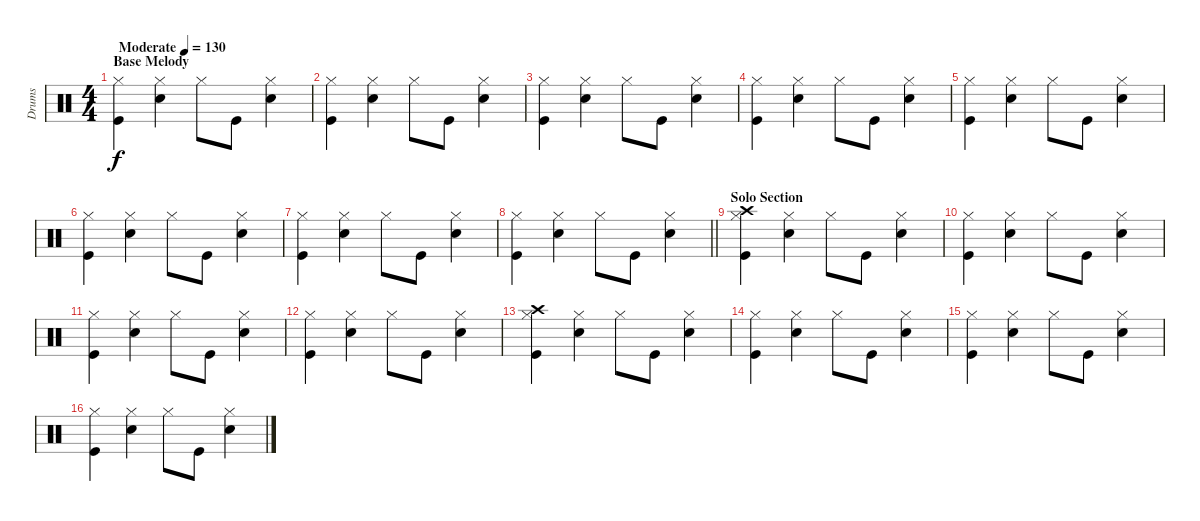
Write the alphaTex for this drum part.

\track ("Drums" "Drums") {instrument percussion}
\staff {score}
\articulation defaults
\ts (4 4)
\section ("" "Base Melody")
\tempo (130 "Moderate")
\clef neutral
\ks c
("Hi-Hat (closed)" "Kick (hit)").4{dy f} ("Hi-Hat (closed)" "Snare (hit) 2").4 "Hi-Hat (closed)".8 "Kick (hit)".8 ("Snare (hit) 2" "Hi-Hat (closed)").4 |
("Hi-Hat (closed)" "Kick (hit)").4 ("Hi-Hat (closed)" "Snare (hit) 2").4 "Hi-Hat (closed)".8 "Kick (hit)".8 ("Snare (hit) 2" "Hi-Hat (closed)").4 |
("Hi-Hat (closed)" "Kick (hit)").4 ("Hi-Hat (closed)" "Snare (hit) 2").4 "Hi-Hat (closed)".8 "Kick (hit)".8 ("Snare (hit) 2" "Hi-Hat (closed)").4 |
("Hi-Hat (closed)" "Kick (hit)").4 ("Hi-Hat (closed)" "Snare (hit) 2").4 "Hi-Hat (closed)".8 "Kick (hit)".8 ("Snare (hit) 2" "Hi-Hat (closed)").4 |
("Hi-Hat (closed)" "Kick (hit)").4 ("Hi-Hat (closed)" "Snare (hit) 2").4 "Hi-Hat (closed)".8 "Kick (hit)".8 ("Snare (hit) 2" "Hi-Hat (closed)").4 |
("Hi-Hat (closed)" "Kick (hit)").4 ("Hi-Hat (closed)" "Snare (hit) 2").4 "Hi-Hat (closed)".8 "Kick (hit)".8 ("Snare (hit) 2" "Hi-Hat (closed)").4 |
("Hi-Hat (closed)" "Kick (hit)").4 ("Hi-Hat (closed)" "Snare (hit) 2").4 "Hi-Hat (closed)".8 "Kick (hit)".8 ("Snare (hit) 2" "Hi-Hat (closed)").4 |
\barLineRight lightlight
("Hi-Hat (closed)" "Kick (hit)").4 ("Hi-Hat (closed)" "Snare (hit) 2").4 "Hi-Hat (closed)".8 "Kick (hit)".8 ("Snare (hit) 2" "Hi-Hat (closed)").4 |
\section ("" "Solo Section")
("Crash high (hit)" "Hi-Hat (closed)" "Kick (hit)").4 ("Hi-Hat (closed)" "Snare (hit) 2").4 "Hi-Hat (closed)".8 "Kick (hit)".8 ("Snare (hit) 2" "Hi-Hat (closed)").4 |
("Hi-Hat (closed)" "Kick (hit)").4 ("Hi-Hat (closed)" "Snare (hit) 2").4 "Hi-Hat (closed)".8 "Kick (hit)".8 ("Snare (hit) 2" "Hi-Hat (closed)").4 |
("Hi-Hat (closed)" "Kick (hit)").4 ("Hi-Hat (closed)" "Snare (hit) 2").4 "Hi-Hat (closed)".8 "Kick (hit)".8 ("Snare (hit) 2" "Hi-Hat (closed)").4 |
("Hi-Hat (closed)" "Kick (hit)").4 ("Hi-Hat (closed)" "Snare (hit) 2").4 "Hi-Hat (closed)".8 "Kick (hit)".8 ("Snare (hit) 2" "Hi-Hat (closed)").4 |
("Crash high (hit)" "Hi-Hat (closed)" "Kick (hit)").4 ("Hi-Hat (closed)" "Snare (hit) 2").4 "Hi-Hat (closed)".8 "Kick (hit)".8 ("Snare (hit) 2" "Hi-Hat (closed)").4 |
("Hi-Hat (closed)" "Kick (hit)").4 ("Hi-Hat (closed)" "Snare (hit) 2").4 "Hi-Hat (closed)".8 "Kick (hit)".8 ("Snare (hit) 2" "Hi-Hat (closed)").4 |
("Hi-Hat (closed)" "Kick (hit)").4 ("Hi-Hat (closed)" "Snare (hit) 2").4 "Hi-Hat (closed)".8 "Kick (hit)".8 ("Snare (hit) 2" "Hi-Hat (closed)").4 |
("Hi-Hat (closed)" "Kick (hit)").4 ("Hi-Hat (closed)" "Snare (hit) 2").4 "Hi-Hat (closed)".8 "Kick (hit)".8 ("Snare (hit) 2" "Hi-Hat (closed)").4
